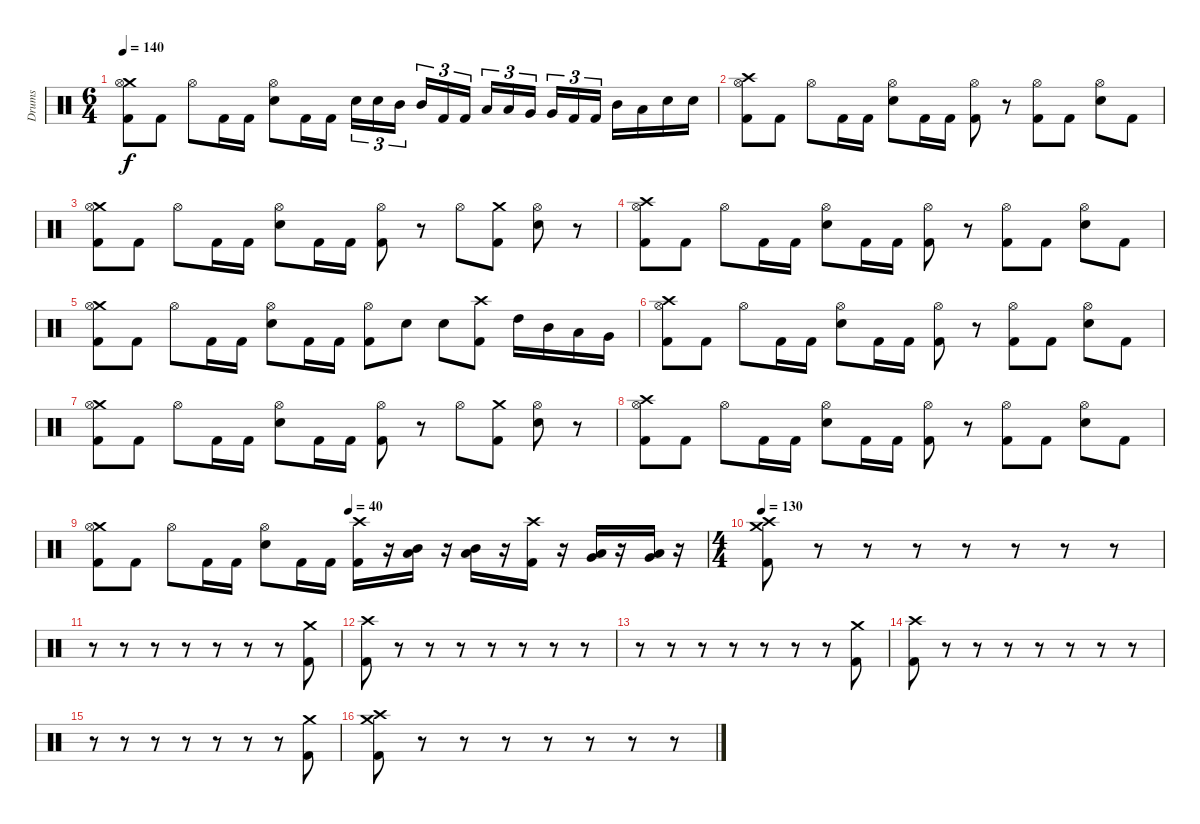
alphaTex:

\track ("Drums" "Drums") {instrument percussion}
\staff {score}
\articulation defaults
\ts (6 4)
\tempo 140
\clef neutral
\ks c
("Crash medium (hit)" "Hi-Hat (open)" "Kick (hit) 2").8{dy f} "Kick (hit) 2".8 "Hi-Hat (open)".8 "Kick (hit) 2".16 "Kick (hit) 2".16 ("Hi-Hat (open)" "Electric Snare (hit)").8 "Kick (hit) 2".16 "Kick (hit) 2".16 "Electric Snare (hit)".16{tu (3 2)} "Electric Snare (hit)".16{tu (3 2)} "Mid Tom (hit)".16{tu (3 2)} "Mid Tom (hit)".16{tu (3 2)} "Kick (hit) 2".16{tu (3 2)} "Kick (hit) 2".16{tu (3 2)} "Low Tom (hit)".16{tu (3 2)} "Low Tom (hit)".16{tu (3 2)} "Very Low Tom (hit)".16{tu (3 2)} "Very Low Tom (hit)".16{tu (3 2)} "Kick (hit) 2".16{tu (3 2)} "Kick (hit) 2".16{tu (3 2)} "Mid Tom (hit)".16 "Low Tom (hit)".16 "Electric Snare (hit)".16 "Electric Snare (hit)".16 |
("Crash high (hit)" "Hi-Hat (open)" "Kick (hit) 2").8 "Kick (hit) 2".8 "Hi-Hat (open)".8 "Kick (hit) 2".16 "Kick (hit) 2".16 ("Hi-Hat (open)" "Electric Snare (hit)").8 "Kick (hit) 2".16 "Kick (hit) 2".16 ("Hi-Hat (open)" "Kick (hit) 2").8 r.8 ("Hi-Hat (open)" "Kick (hit) 2").8 "Kick (hit) 2".8 ("Hi-Hat (open)" "Electric Snare (hit)").8 "Kick (hit) 2".8 |
("Crash medium (hit)" "Hi-Hat (open)" "Kick (hit) 2").8 "Kick (hit) 2".8 "Hi-Hat (open)".8 "Kick (hit) 2".16 "Kick (hit) 2".16 ("Hi-Hat (open)" "Electric Snare (hit)").8 "Kick (hit) 2".16 "Kick (hit) 2".16 ("Hi-Hat (open)" "Kick (hit) 2").8 r.8 "Hi-Hat (open)".8 ("Crash medium (hit)" "Kick (hit) 2").8 ("Hi-Hat (open)" "Electric Snare (hit)").8 r.8 |
("Crash high (hit)" "Hi-Hat (open)" "Kick (hit) 2").8 "Kick (hit) 2".8 "Hi-Hat (open)".8 "Kick (hit) 2".16 "Kick (hit) 2".16 ("Hi-Hat (open)" "Electric Snare (hit)").8 "Kick (hit) 2".16 "Kick (hit) 2".16 ("Hi-Hat (open)" "Kick (hit) 2").8 r.8 ("Hi-Hat (open)" "Kick (hit) 2").8 "Kick (hit) 2".8 ("Hi-Hat (open)" "Electric Snare (hit)").8 "Kick (hit) 2".8 |
("Crash medium (hit)" "Hi-Hat (open)" "Kick (hit) 2").8 "Kick (hit) 2".8 "Hi-Hat (open)".8 "Kick (hit) 2".16 "Kick (hit) 2".16 ("Hi-Hat (open)" "Electric Snare (hit)").8 "Kick (hit) 2".16 "Kick (hit) 2".16 ("Hi-Hat (open)" "Kick (hit) 2").8 "Electric Snare (hit)".8 "Electric Snare (hit)".8 ("Crash high (hit)" "Kick (hit) 2").8 "High Tom (hit)".16 "Mid Tom (hit)".16 "Low Tom (hit)".16 "Very Low Tom (hit)".16 |
("Crash high (hit)" "Hi-Hat (open)" "Kick (hit) 2").8 "Kick (hit) 2".8 "Hi-Hat (open)".8 "Kick (hit) 2".16 "Kick (hit) 2".16 ("Hi-Hat (open)" "Electric Snare (hit)").8 "Kick (hit) 2".16 "Kick (hit) 2".16 ("Hi-Hat (open)" "Kick (hit) 2").8 r.8 ("Hi-Hat (open)" "Kick (hit) 2").8 "Kick (hit) 2".8 ("Hi-Hat (open)" "Electric Snare (hit)").8 "Kick (hit) 2".8 |
("Crash medium (hit)" "Hi-Hat (open)" "Kick (hit) 2").8 "Kick (hit) 2".8 "Hi-Hat (open)".8 "Kick (hit) 2".16 "Kick (hit) 2".16 ("Hi-Hat (open)" "Electric Snare (hit)").8 "Kick (hit) 2".16 "Kick (hit) 2".16 ("Hi-Hat (open)" "Kick (hit) 2").8 r.8 "Hi-Hat (open)".8 ("Crash medium (hit)" "Kick (hit) 2").8 ("Hi-Hat (open)" "Electric Snare (hit)").8 r.8 |
("Crash high (hit)" "Hi-Hat (open)" "Kick (hit) 2").8 "Kick (hit) 2".8 "Hi-Hat (open)".8 "Kick (hit) 2".16 "Kick (hit) 2".16 ("Hi-Hat (open)" "Electric Snare (hit)").8 "Kick (hit) 2".16 "Kick (hit) 2".16 ("Hi-Hat (open)" "Kick (hit) 2").8 r.8 ("Hi-Hat (open)" "Kick (hit) 2").8 "Kick (hit) 2".8 ("Hi-Hat (open)" "Electric Snare (hit)").8 "Kick (hit) 2".8 |
\tempo (40 0.4166666666666667)
("Crash medium (hit)" "Hi-Hat (open)" "Kick (hit) 2").8 "Kick (hit) 2".8 "Hi-Hat (open)".8 "Kick (hit) 2".16 "Kick (hit) 2".16 ("Hi-Hat (open)" "Electric Snare (hit)").8 "Kick (hit) 2".16 "Kick (hit) 2".16 ("Crash high (hit)" "Kick (hit) 2").16 r.16 ("Mid Tom (hit)" "Low Tom (hit)").16 r.16 ("Mid Tom (hit)" "Low Tom (hit)").16 r.16 ("Crash high (hit)" "Kick (hit) 2").16 r.16 ("Low Tom (hit)" "Very Low Tom (hit)").16 r.16 ("Low Tom (hit)" "Very Low Tom (hit)").16 r.16 |
\ts (4 4)
\tempo 130
("Crash high (hit)" "Crash medium (hit)" "Kick (hit) 2").8 r.8 r.8 r.8 r.8 r.8 r.8 r.8 |
r.8 r.8 r.8 r.8 r.8 r.8 r.8 ("Crash medium (hit)" "Kick (hit) 2").8 |
("Crash high (hit)" "Kick (hit) 2").8 r.8 r.8 r.8 r.8 r.8 r.8 r.8 |
r.8 r.8 r.8 r.8 r.8 r.8 r.8 ("Crash medium (hit)" "Kick (hit) 2").8 |
("Crash high (hit)" "Kick (hit) 2").8 r.8 r.8 r.8 r.8 r.8 r.8 r.8 |
r.8 r.8 r.8 r.8 r.8 r.8 r.8 ("Crash medium (hit)" "Kick (hit) 2").8 |
("Crash high (hit)" "Crash medium (hit)" "Kick (hit) 2").8 r.8 r.8 r.8 r.8 r.8 r.8 r.8
